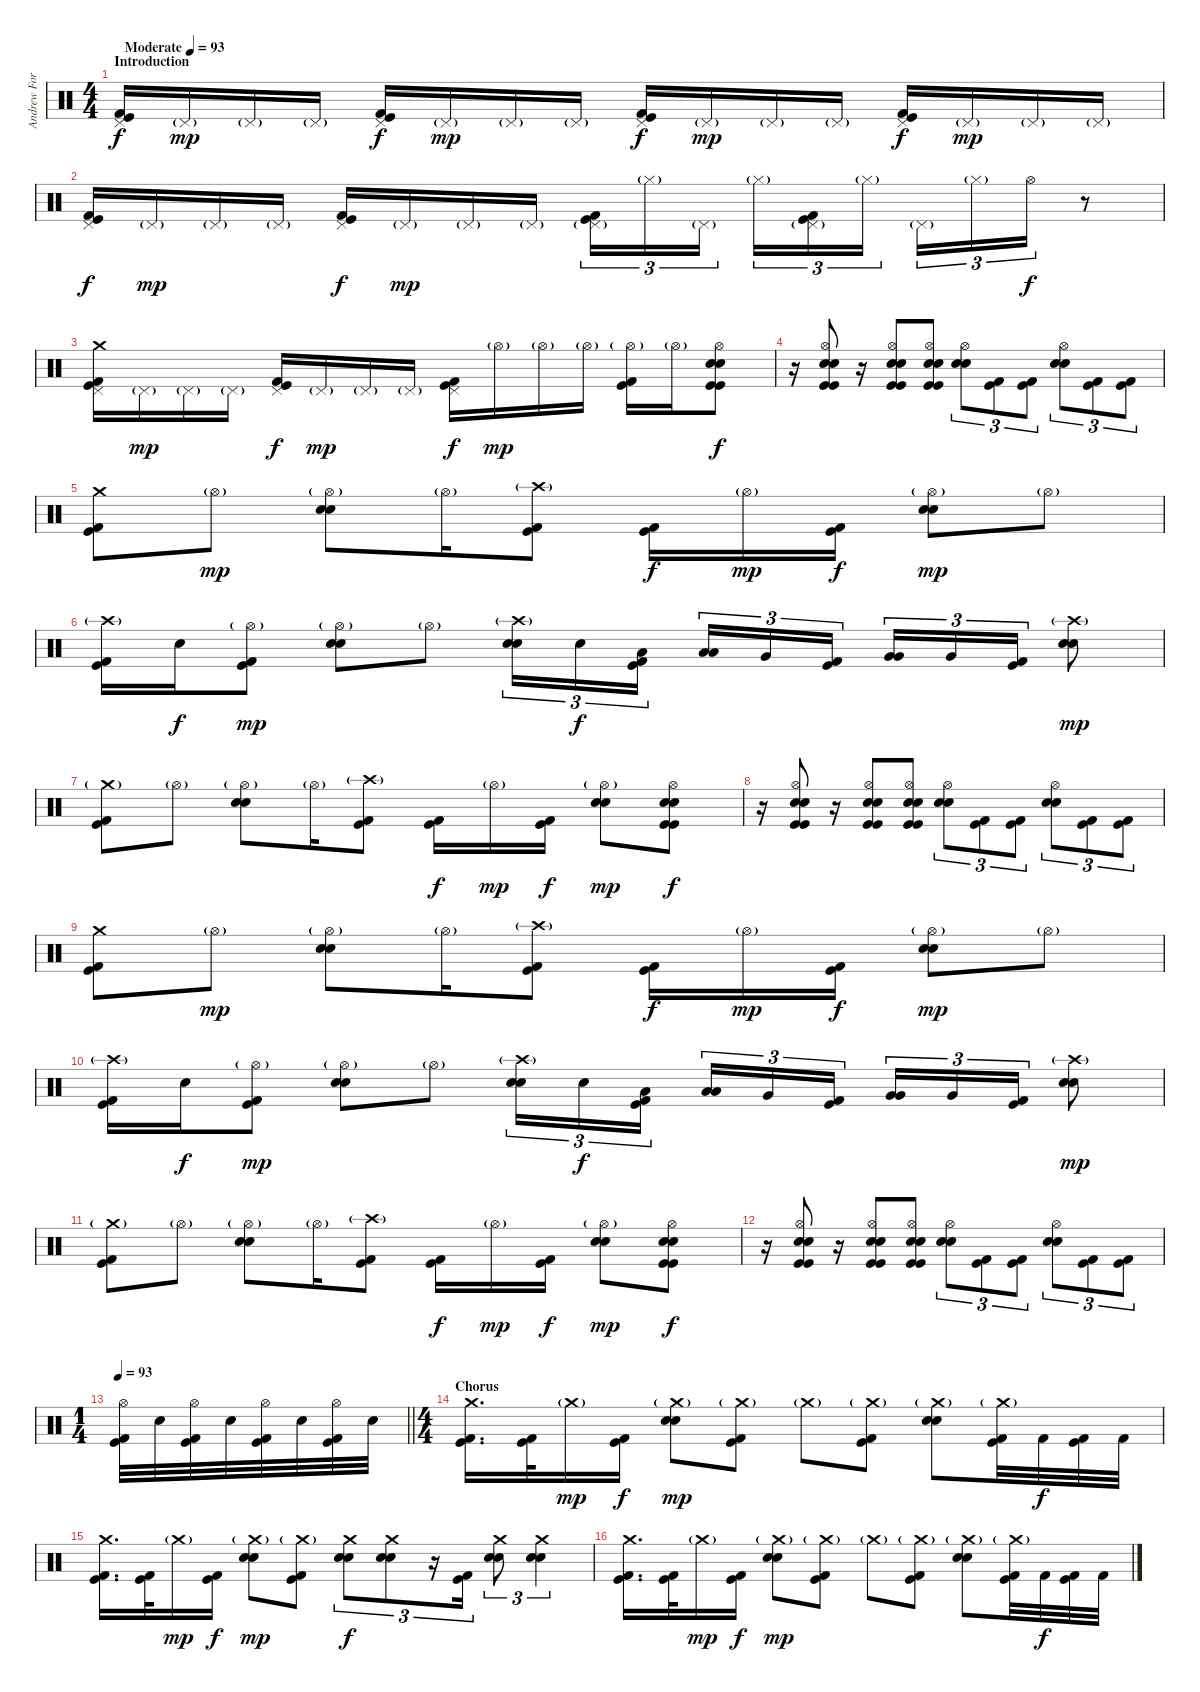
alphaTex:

\track ("Andrew Forsman" "Andrew For") {instrument percussion}
\staff {score}
\articulation defaults
\ts (4 4)
\section ("" "Introduction")
\tempo (93 "Moderate")
\tempo 120
\tempo (93 "Moderate")
\clef neutral
\ks c
("Pedal Hi-Hat (hit)" "Kick (hit)" "Kick (hit) 2").16{dy f} "Pedal Hi-Hat (hit)"{g}.16{dy mp} "Pedal Hi-Hat (hit)"{g}.16 "Pedal Hi-Hat (hit)"{g}.16 ("Pedal Hi-Hat (hit)" "Kick (hit)" "Kick (hit) 2").16{dy f} "Pedal Hi-Hat (hit)"{g}.16{dy mp} "Pedal Hi-Hat (hit)"{g}.16 "Pedal Hi-Hat (hit)"{g}.16 ("Pedal Hi-Hat (hit)" "Kick (hit)" "Kick (hit) 2").16{dy f} "Pedal Hi-Hat (hit)"{g}.16{dy mp} "Pedal Hi-Hat (hit)"{g}.16 "Pedal Hi-Hat (hit)"{g}.16 ("Pedal Hi-Hat (hit)" "Kick (hit)" "Kick (hit) 2").16{dy f} "Pedal Hi-Hat (hit)"{g}.16{dy mp} "Pedal Hi-Hat (hit)"{g}.16 "Pedal Hi-Hat (hit)"{g}.16 |
("Pedal Hi-Hat (hit)" "Kick (hit)" "Kick (hit) 2").16{dy f} "Pedal Hi-Hat (hit)"{g}.16{dy mp} "Pedal Hi-Hat (hit)"{g}.16 "Pedal Hi-Hat (hit)"{g}.16 ("Pedal Hi-Hat (hit)" "Kick (hit)" "Kick (hit) 2").16{dy f} "Pedal Hi-Hat (hit)"{g}.16{dy mp} "Pedal Hi-Hat (hit)"{g}.16 "Pedal Hi-Hat (hit)"{g}.16 ("Pedal Hi-Hat (hit)"{g} "Kick (hit)" "Kick (hit) 2").16{tu (3 2)} "Hi-Hat (closed)"{g}.16{tu (3 2)} "Pedal Hi-Hat (hit)"{g}.16{tu (3 2) beam splitsecondary} "Hi-Hat (closed)"{g}.16{tu (3 2)} ("Pedal Hi-Hat (hit)"{g} "Kick (hit)" "Kick (hit) 2").16{tu (3 2)} "Hi-Hat (closed)"{g}.16{tu (3 2)} "Pedal Hi-Hat (hit)"{g}.16{tu (3 2)} "Hi-Hat (closed)"{g}.16{tu (3 2)} "Hi-Hat (open)".16{tu (3 2) dy f} r.8 |
("Pedal Hi-Hat (hit)" "Crash medium (hit)" "Kick (hit)" "Kick (hit) 2").16 "Pedal Hi-Hat (hit)"{g}.16{dy mp} "Pedal Hi-Hat (hit)"{g}.16 "Pedal Hi-Hat (hit)"{g}.16 ("Pedal Hi-Hat (hit)" "Kick (hit)" "Kick (hit) 2").16{dy f} "Pedal Hi-Hat (hit)"{g}.16{dy mp} "Pedal Hi-Hat (hit)"{g}.16 "Pedal Hi-Hat (hit)"{g}.16 ("Pedal Hi-Hat (hit)" "Kick (hit)" "Kick (hit) 2").16{dy f} "Hi-Hat (open)"{g}.16{dy mp} "Hi-Hat (open)"{g}.16 "Hi-Hat (open)"{g}.16 ("Hi-Hat (open)"{g} "Kick (hit)" "Kick (hit) 2").16 "Hi-Hat (open)"{g}.16 ("Hi-Hat (open)" "Electric Snare (hit)" "Electric Snare (hit)" "Kick (hit)" "Kick (hit)").8{dy f} |
r.16 ("Hi-Hat (open)" "Electric Snare (hit)" "Electric Snare (hit)" "Kick (hit)" "Kick (hit)").8 r.16 ("Hi-Hat (open)" "Electric Snare (hit)" "Electric Snare (hit)" "Kick (hit)" "Kick (hit)").8 ("Hi-Hat (open)" "Electric Snare (hit)" "Electric Snare (hit)" "Kick (hit)" "Kick (hit)").8 ("Hi-Hat (open)" "Electric Snare (hit)" "Electric Snare (hit)").8{tu (3 2)} ("Kick (hit)" "Kick (hit) 2").8{tu (3 2)} ("Kick (hit)" "Kick (hit) 2").8{tu (3 2)} ("Hi-Hat (open)" "Electric Snare (hit)" "Electric Snare (hit)").8{tu (3 2)} ("Kick (hit)" "Kick (hit) 2").8{tu (3 2)} ("Kick (hit)" "Kick (hit) 2").8{tu (3 2)} |
("Crash medium (hit)" "Kick (hit)" "Kick (hit) 2").8 "Hi-Hat (open)"{g}.8{dy mp} ("Hi-Hat (open)"{g} "Electric Snare (hit)" "Electric Snare (hit)").8 "Hi-Hat (open)"{g}.16 ("Crash high (hit)"{g} "Kick (hit)" "Kick (hit) 2").8 ("Kick (hit)" "Kick (hit) 2").16{dy f} "Hi-Hat (open)"{g}.16{dy mp} ("Kick (hit)" "Kick (hit) 2").16{dy f} ("Hi-Hat (open)"{g} "Electric Snare (hit)" "Electric Snare (hit)").8{dy mp} "Hi-Hat (open)"{g}.8 |
("Crash high (hit)"{g} "Kick (hit)" "Kick (hit) 2").16 "Electric Snare (hit)".16{dy f} ("Hi-Hat (open)"{g} "Kick (hit)" "Kick (hit) 2").8{dy mp} ("Hi-Hat (open)"{g} "Electric Snare (hit)" "Electric Snare (hit)").8 "Hi-Hat (open)"{g}.8 ("Crash high (hit)"{g} "Electric Snare (hit)" "Electric Snare (hit)").16{tu (3 2)} "Electric Snare (hit)".16{tu (3 2) dy f} ("Low Tom (hit)" "Kick (hit)" "Kick (hit) 2").16{tu (3 2) beam splitsecondary} ("Low Tom (hit)" "Low Tom (hit)").16{tu (3 2)} "Very Low Tom (hit)".16{tu (3 2)} ("Kick (hit)" "Kick (hit) 2").16{tu (3 2)} ("Very Low Tom (hit)" "Very Low Tom (hit)").16{tu (3 2)} "Very Low Tom (hit)".16{tu (3 2)} ("Kick (hit)" "Kick (hit) 2").16{tu (3 2)} ("Crash high (hit)"{g} "Electric Snare (hit)" "Electric Snare (hit)").8{dy mp} |
("Crash medium (hit)"{g} "Kick (hit)" "Kick (hit) 2").8 "Hi-Hat (open)"{g}.8 ("Hi-Hat (open)"{g} "Electric Snare (hit)" "Electric Snare (hit)").8 "Hi-Hat (open)"{g}.16 ("Crash high (hit)"{g} "Kick (hit)" "Kick (hit) 2").8 ("Kick (hit)" "Kick (hit) 2").16{dy f} "Hi-Hat (open)"{g}.16{dy mp} ("Kick (hit)" "Kick (hit) 2").16{dy f} ("Hi-Hat (open)"{g} "Electric Snare (hit)" "Electric Snare (hit)").8{dy mp} ("Hi-Hat (open)" "Electric Snare (hit)" "Electric Snare (hit)" "Kick (hit)" "Kick (hit)").8{dy f} |
r.16 ("Hi-Hat (open)" "Electric Snare (hit)" "Electric Snare (hit)" "Kick (hit)" "Kick (hit)").8 r.16 ("Hi-Hat (open)" "Electric Snare (hit)" "Electric Snare (hit)" "Kick (hit)" "Kick (hit)").8 ("Hi-Hat (open)" "Electric Snare (hit)" "Electric Snare (hit)" "Kick (hit)" "Kick (hit)").8 ("Hi-Hat (open)" "Electric Snare (hit)" "Electric Snare (hit)").8{tu (3 2)} ("Kick (hit)" "Kick (hit) 2").8{tu (3 2)} ("Kick (hit)" "Kick (hit) 2").8{tu (3 2)} ("Hi-Hat (open)" "Electric Snare (hit)" "Electric Snare (hit)").8{tu (3 2)} ("Kick (hit)" "Kick (hit) 2").8{tu (3 2)} ("Kick (hit)" "Kick (hit) 2").8{tu (3 2)} |
("Crash medium (hit)" "Kick (hit)" "Kick (hit) 2").8 "Hi-Hat (open)"{g}.8{dy mp} ("Hi-Hat (open)"{g} "Electric Snare (hit)" "Electric Snare (hit)").8 "Hi-Hat (open)"{g}.16 ("Crash high (hit)"{g} "Kick (hit)" "Kick (hit) 2").8 ("Kick (hit)" "Kick (hit) 2").16{dy f} "Hi-Hat (open)"{g}.16{dy mp} ("Kick (hit)" "Kick (hit) 2").16{dy f} ("Hi-Hat (open)"{g} "Electric Snare (hit)" "Electric Snare (hit)").8{dy mp} "Hi-Hat (open)"{g}.8 |
("Crash high (hit)"{g} "Kick (hit)" "Kick (hit) 2").16 "Electric Snare (hit)".16{dy f} ("Hi-Hat (open)"{g} "Kick (hit)" "Kick (hit) 2").8{dy mp} ("Hi-Hat (open)"{g} "Electric Snare (hit)" "Electric Snare (hit)").8 "Hi-Hat (open)"{g}.8 ("Crash high (hit)"{g} "Electric Snare (hit)" "Electric Snare (hit)").16{tu (3 2)} "Electric Snare (hit)".16{tu (3 2) dy f} ("Low Tom (hit)" "Kick (hit)" "Kick (hit) 2").16{tu (3 2) beam splitsecondary} ("Low Tom (hit)" "Low Tom (hit)").16{tu (3 2)} "Very Low Tom (hit)".16{tu (3 2)} ("Kick (hit)" "Kick (hit) 2").16{tu (3 2)} ("Very Low Tom (hit)" "Very Low Tom (hit)").16{tu (3 2)} "Very Low Tom (hit)".16{tu (3 2)} ("Kick (hit)" "Kick (hit) 2").16{tu (3 2)} ("Crash high (hit)"{g} "Electric Snare (hit)" "Electric Snare (hit)").8{dy mp} |
("Crash medium (hit)"{g} "Kick (hit)" "Kick (hit) 2").8 "Hi-Hat (open)"{g}.8 ("Hi-Hat (open)"{g} "Electric Snare (hit)" "Electric Snare (hit)").8 "Hi-Hat (open)"{g}.16 ("Crash high (hit)"{g} "Kick (hit)" "Kick (hit) 2").8 ("Kick (hit)" "Kick (hit) 2").16{dy f} "Hi-Hat (open)"{g}.16{dy mp} ("Kick (hit)" "Kick (hit) 2").16{dy f} ("Hi-Hat (open)"{g} "Electric Snare (hit)" "Electric Snare (hit)").8{dy mp} ("Hi-Hat (open)" "Electric Snare (hit)" "Electric Snare (hit)" "Kick (hit)" "Kick (hit)").8{dy f} |
r.16 ("Hi-Hat (open)" "Electric Snare (hit)" "Electric Snare (hit)" "Kick (hit)" "Kick (hit)").8 r.16 ("Hi-Hat (open)" "Electric Snare (hit)" "Electric Snare (hit)" "Kick (hit)" "Kick (hit)").8 ("Hi-Hat (open)" "Electric Snare (hit)" "Electric Snare (hit)" "Kick (hit)" "Kick (hit)").8 ("Hi-Hat (open)" "Electric Snare (hit)" "Electric Snare (hit)").8{tu (3 2)} ("Kick (hit)" "Kick (hit) 2").8{tu (3 2)} ("Kick (hit)" "Kick (hit) 2").8{tu (3 2)} ("Hi-Hat (open)" "Electric Snare (hit)" "Electric Snare (hit)").8{tu (3 2)} ("Kick (hit)" "Kick (hit) 2").8{tu (3 2)} ("Kick (hit)" "Kick (hit) 2").8{tu (3 2)} |
\ts (1 4)
\tempo 93
\barLineRight lightlight
("Hi-Hat (open)" "Kick (hit)" "Kick (hit) 2").32 "Electric Snare (hit)".32 ("Hi-Hat (open)" "Kick (hit)" "Kick (hit) 2").32 "Electric Snare (hit)".32 ("Hi-Hat (open)" "Kick (hit)" "Kick (hit) 2").32 "Electric Snare (hit)".32 ("Hi-Hat (open)" "Kick (hit)" "Kick (hit) 2").32 "Electric Snare (hit)".32 |
\ts (4 4)
\section ("" "Chorus")
("Crash medium (hit)" "Kick (hit)" "Kick (hit) 2").16{d} ("Kick (hit)" "Kick (hit) 2").32 "Crash medium (hit)"{g}.16{dy mp} ("Kick (hit)" "Kick (hit) 2").16{dy f} ("Crash medium (hit)"{g} "Electric Snare (hit)" "Electric Snare (hit)").8{dy mp} ("Crash medium (hit)"{g} "Kick (hit)" "Kick (hit) 2").8 "Crash medium (hit)"{g}.8 ("Crash medium (hit)"{g} "Kick (hit)" "Kick (hit) 2").8 ("Crash medium (hit)"{g} "Electric Snare (hit)" "Electric Snare (hit)").8 ("Crash medium (hit)"{g} "Kick (hit)" "Kick (hit) 2").32 "Kick (hit) 2".32{dy f} ("Kick (hit)" "Kick (hit) 2").32 "Kick (hit) 2".32 |
("Crash medium (hit)" "Kick (hit)" "Kick (hit) 2").16{d} ("Kick (hit)" "Kick (hit) 2").32 "Crash medium (hit)"{g}.16{dy mp} ("Kick (hit)" "Kick (hit) 2").16{dy f} ("Crash medium (hit)"{g} "Electric Snare (hit)" "Electric Snare (hit)").8{dy mp} ("Crash medium (hit)"{g} "Kick (hit)" "Kick (hit) 2").8 ("Crash medium (hit)" "Electric Snare (hit)" "Electric Snare (hit)").8{tu (3 2) dy f} ("Crash medium (hit)" "Electric Snare (hit)" "Electric Snare (hit)").8{tu (3 2)} r.16{tu (3 2)} ("Kick (hit)" "Kick (hit) 2").16{tu (3 2)} ("Crash medium (hit)" "Electric Snare (hit)" "Electric Snare (hit)").8{tu (3 2)} ("Crash medium (hit)" "Electric Snare (hit)" "Electric Snare (hit)").4{tu (3 2)} |
("Crash medium (hit)" "Kick (hit)" "Kick (hit) 2").16{d} ("Kick (hit)" "Kick (hit) 2").32 "Crash medium (hit)"{g}.16{dy mp} ("Kick (hit)" "Kick (hit) 2").16{dy f} ("Crash medium (hit)"{g} "Electric Snare (hit)" "Electric Snare (hit)").8{dy mp} ("Crash medium (hit)"{g} "Kick (hit)" "Kick (hit) 2").8 "Crash medium (hit)"{g}.8 ("Crash medium (hit)"{g} "Kick (hit)" "Kick (hit) 2").8 ("Crash medium (hit)"{g} "Electric Snare (hit)" "Electric Snare (hit)").8 ("Crash medium (hit)"{g} "Kick (hit)" "Kick (hit) 2").32 "Kick (hit) 2".32{dy f} ("Kick (hit)" "Kick (hit) 2").32 "Kick (hit) 2".32
